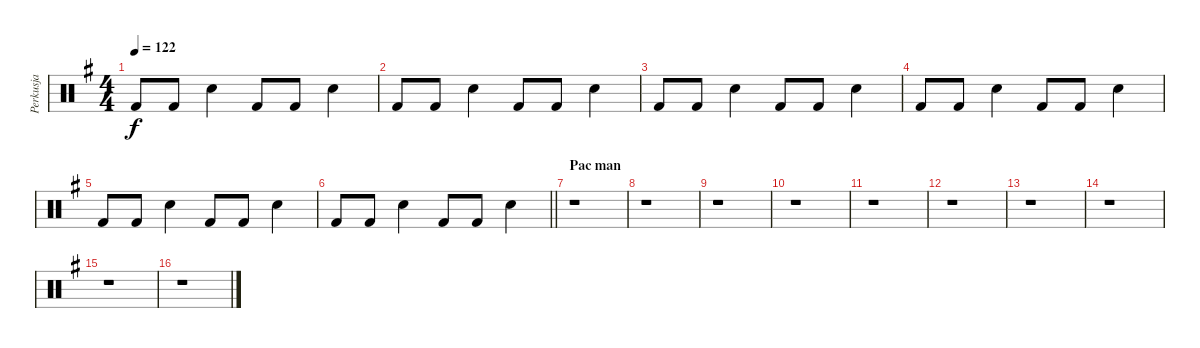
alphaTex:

\track ("Perkusja" "Perkusja") {instrument percussion}
\staff {score}
\articulation defaults
\ts (4 4)
\tempo 122
\clef neutral
\ks g "Kick (hit) 2".8{dy f} "Kick (hit) 2".8 "Electric Snare (hit)".4 "Kick (hit) 2".8 "Kick (hit) 2".8 "Electric Snare (hit)".4
|
"Kick (hit) 2".8 "Kick (hit) 2".8 "Electric Snare (hit)".4 "Kick (hit) 2".8 "Kick (hit) 2".8 "Electric Snare (hit)".4 |
"Kick (hit) 2".8 "Kick (hit) 2".8 "Electric Snare (hit)".4 "Kick (hit) 2".8 "Kick (hit) 2".8 "Electric Snare (hit)".4 |
"Kick (hit) 2".8 "Kick (hit) 2".8 "Electric Snare (hit)".4 "Kick (hit) 2".8 "Kick (hit) 2".8 "Electric Snare (hit)".4 |
"Kick (hit) 2".8 "Kick (hit) 2".8 "Electric Snare (hit)".4 "Kick (hit) 2".8 "Kick (hit) 2".8 "Electric Snare (hit)".4 |
\barLineRight lightlight "Kick (hit) 2".8 "Kick (hit) 2".8 "Electric Snare (hit)".4 "Kick (hit) 2".8 "Kick (hit) 2".8 "Electric Snare (hit)".4
|
\section ("" "Pac man")
r.1 |
r.1 |
r.1 |
r.1 |
r.1 |
r.1 |
r.1 |
r.1 |
r.1 |
r.1
